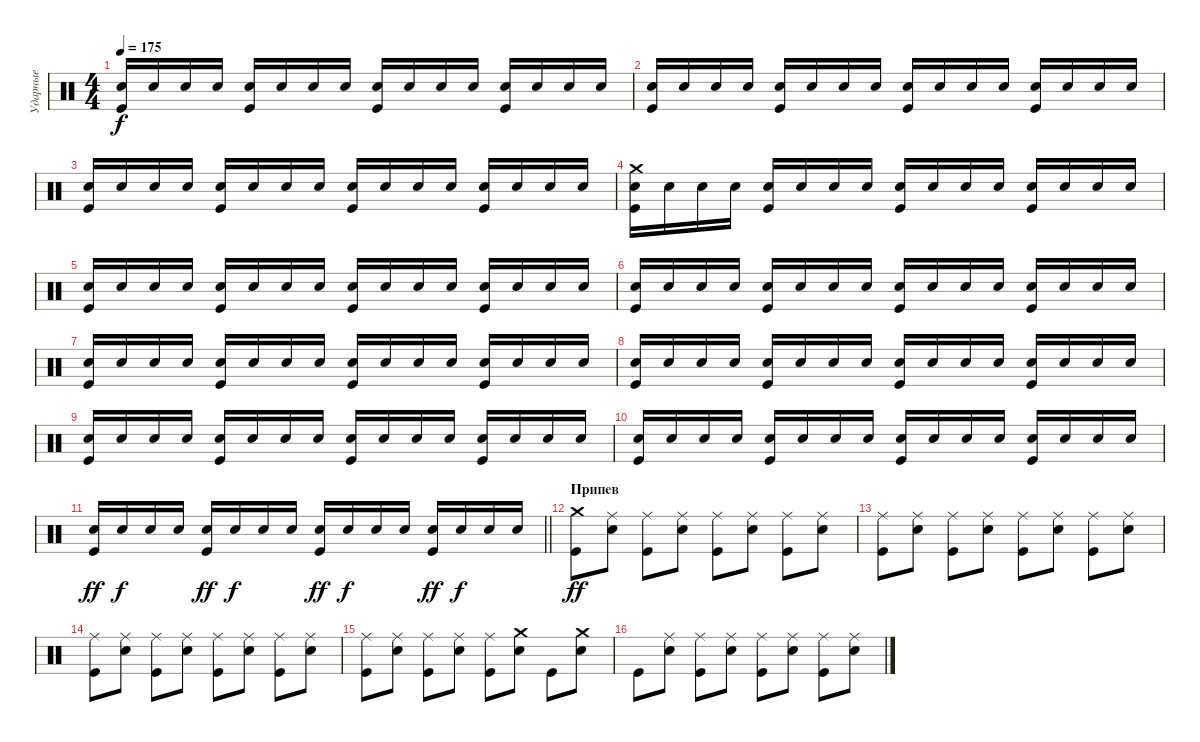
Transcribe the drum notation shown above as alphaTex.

\track ("Ударные" "Ударные") {instrument percussion}
\staff {score}
\articulation defaults
\ts (4 4)
\tempo 175
\clef neutral
\ks c
("Electric Snare (hit)" "Kick (hit)").16{dy f} "Electric Snare (hit)".16 "Electric Snare (hit)".16 "Electric Snare (hit)".16 ("Electric Snare (hit)" "Kick (hit)").16 "Electric Snare (hit)".16 "Electric Snare (hit)".16 "Electric Snare (hit)".16 ("Electric Snare (hit)" "Kick (hit)").16 "Electric Snare (hit)".16 "Electric Snare (hit)".16 "Electric Snare (hit)".16 ("Electric Snare (hit)" "Kick (hit)").16 "Electric Snare (hit)".16 "Electric Snare (hit)".16 "Electric Snare (hit)".16 |
("Electric Snare (hit)" "Kick (hit)").16 "Electric Snare (hit)".16 "Electric Snare (hit)".16 "Electric Snare (hit)".16 ("Electric Snare (hit)" "Kick (hit)").16 "Electric Snare (hit)".16 "Electric Snare (hit)".16 "Electric Snare (hit)".16 ("Electric Snare (hit)" "Kick (hit)").16 "Electric Snare (hit)".16 "Electric Snare (hit)".16 "Electric Snare (hit)".16 ("Electric Snare (hit)" "Kick (hit)").16 "Electric Snare (hit)".16 "Electric Snare (hit)".16 "Electric Snare (hit)".16 |
("Electric Snare (hit)" "Kick (hit)").16 "Electric Snare (hit)".16 "Electric Snare (hit)".16 "Electric Snare (hit)".16 ("Electric Snare (hit)" "Kick (hit)").16 "Electric Snare (hit)".16 "Electric Snare (hit)".16 "Electric Snare (hit)".16 ("Electric Snare (hit)" "Kick (hit)").16 "Electric Snare (hit)".16 "Electric Snare (hit)".16 "Electric Snare (hit)".16 ("Electric Snare (hit)" "Kick (hit)").16 "Electric Snare (hit)".16 "Electric Snare (hit)".16 "Electric Snare (hit)".16 |
("Crash medium (hit)" "Electric Snare (hit)" "Kick (hit)").16 "Electric Snare (hit)".16 "Electric Snare (hit)".16 "Electric Snare (hit)".16 ("Electric Snare (hit)" "Kick (hit)").16 "Electric Snare (hit)".16 "Electric Snare (hit)".16 "Electric Snare (hit)".16 ("Electric Snare (hit)" "Kick (hit)").16 "Electric Snare (hit)".16 "Electric Snare (hit)".16 "Electric Snare (hit)".16 ("Electric Snare (hit)" "Kick (hit)").16 "Electric Snare (hit)".16 "Electric Snare (hit)".16 "Electric Snare (hit)".16 |
("Electric Snare (hit)" "Kick (hit)").16 "Electric Snare (hit)".16 "Electric Snare (hit)".16 "Electric Snare (hit)".16 ("Electric Snare (hit)" "Kick (hit)").16 "Electric Snare (hit)".16 "Electric Snare (hit)".16 "Electric Snare (hit)".16 ("Electric Snare (hit)" "Kick (hit)").16 "Electric Snare (hit)".16 "Electric Snare (hit)".16 "Electric Snare (hit)".16 ("Electric Snare (hit)" "Kick (hit)").16 "Electric Snare (hit)".16 "Electric Snare (hit)".16 "Electric Snare (hit)".16 |
("Electric Snare (hit)" "Kick (hit)").16 "Electric Snare (hit)".16 "Electric Snare (hit)".16 "Electric Snare (hit)".16 ("Electric Snare (hit)" "Kick (hit)").16 "Electric Snare (hit)".16 "Electric Snare (hit)".16 "Electric Snare (hit)".16 ("Electric Snare (hit)" "Kick (hit)").16 "Electric Snare (hit)".16 "Electric Snare (hit)".16 "Electric Snare (hit)".16 ("Electric Snare (hit)" "Kick (hit)").16 "Electric Snare (hit)".16 "Electric Snare (hit)".16 "Electric Snare (hit)".16 |
("Electric Snare (hit)" "Kick (hit)").16 "Electric Snare (hit)".16 "Electric Snare (hit)".16 "Electric Snare (hit)".16 ("Electric Snare (hit)" "Kick (hit)").16 "Electric Snare (hit)".16 "Electric Snare (hit)".16 "Electric Snare (hit)".16 ("Electric Snare (hit)" "Kick (hit)").16 "Electric Snare (hit)".16 "Electric Snare (hit)".16 "Electric Snare (hit)".16 ("Electric Snare (hit)" "Kick (hit)").16 "Electric Snare (hit)".16 "Electric Snare (hit)".16 "Electric Snare (hit)".16 |
("Electric Snare (hit)" "Kick (hit)").16 "Electric Snare (hit)".16 "Electric Snare (hit)".16 "Electric Snare (hit)".16 ("Electric Snare (hit)" "Kick (hit)").16 "Electric Snare (hit)".16 "Electric Snare (hit)".16 "Electric Snare (hit)".16 ("Electric Snare (hit)" "Kick (hit)").16 "Electric Snare (hit)".16 "Electric Snare (hit)".16 "Electric Snare (hit)".16 ("Electric Snare (hit)" "Kick (hit)").16 "Electric Snare (hit)".16 "Electric Snare (hit)".16 "Electric Snare (hit)".16 |
("Electric Snare (hit)" "Kick (hit)").16 "Electric Snare (hit)".16 "Electric Snare (hit)".16 "Electric Snare (hit)".16 ("Electric Snare (hit)" "Kick (hit)").16 "Electric Snare (hit)".16 "Electric Snare (hit)".16 "Electric Snare (hit)".16 ("Electric Snare (hit)" "Kick (hit)").16 "Electric Snare (hit)".16 "Electric Snare (hit)".16 "Electric Snare (hit)".16 ("Electric Snare (hit)" "Kick (hit)").16 "Electric Snare (hit)".16 "Electric Snare (hit)".16 "Electric Snare (hit)".16 |
("Electric Snare (hit)" "Kick (hit)").16 "Electric Snare (hit)".16 "Electric Snare (hit)".16 "Electric Snare (hit)".16 ("Electric Snare (hit)" "Kick (hit)").16 "Electric Snare (hit)".16 "Electric Snare (hit)".16 "Electric Snare (hit)".16 ("Electric Snare (hit)" "Kick (hit)").16 "Electric Snare (hit)".16 "Electric Snare (hit)".16 "Electric Snare (hit)".16 ("Electric Snare (hit)" "Kick (hit)").16 "Electric Snare (hit)".16 "Electric Snare (hit)".16 "Electric Snare (hit)".16 |
\barLineRight lightlight
("Electric Snare (hit)" "Kick (hit)").16{dy ff} "Electric Snare (hit)".16{dy f} "Electric Snare (hit)".16 "Electric Snare (hit)".16 ("Electric Snare (hit)" "Kick (hit)").16{dy ff} "Electric Snare (hit)".16{dy f} "Electric Snare (hit)".16 "Electric Snare (hit)".16 ("Electric Snare (hit)" "Kick (hit)").16{dy ff} "Electric Snare (hit)".16{dy f} "Electric Snare (hit)".16 "Electric Snare (hit)".16 ("Electric Snare (hit)" "Kick (hit)").16{dy ff} "Electric Snare (hit)".16{dy f} "Electric Snare (hit)".16 "Electric Snare (hit)".16 |
\section ("" "Припев")
("Crash medium (hit)" "Kick (hit)").8{dy ff} ("Ride (middle)" "Electric Snare (hit)").8 ("Ride (middle)" "Kick (hit)").8 ("Ride (middle)" "Electric Snare (hit)").8 ("Ride (middle)" "Kick (hit)").8 ("Ride (middle)" "Electric Snare (hit)").8 ("Ride (middle)" "Kick (hit)").8 ("Ride (middle)" "Electric Snare (hit)").8 |
("Ride (middle)" "Kick (hit)").8 ("Ride (middle)" "Electric Snare (hit)").8 ("Ride (middle)" "Kick (hit)").8 ("Ride (middle)" "Electric Snare (hit)").8 ("Ride (middle)" "Kick (hit)").8 ("Ride (middle)" "Electric Snare (hit)").8 ("Ride (middle)" "Kick (hit)").8 ("Ride (middle)" "Electric Snare (hit)").8 |
("Ride (middle)" "Kick (hit)").8 ("Ride (middle)" "Electric Snare (hit)").8 ("Ride (middle)" "Kick (hit)").8 ("Ride (middle)" "Electric Snare (hit)").8 ("Ride (middle)" "Kick (hit)").8 ("Ride (middle)" "Electric Snare (hit)").8 ("Ride (middle)" "Kick (hit)").8 ("Ride (middle)" "Electric Snare (hit)").8 |
("Ride (middle)" "Kick (hit)").8 ("Ride (middle)" "Electric Snare (hit)").8 ("Ride (middle)" "Kick (hit)").8 ("Ride (middle)" "Electric Snare (hit)").8 ("Ride (middle)" "Kick (hit)").8 ("Crash medium (hit)" "Electric Snare (hit)").8 "Kick (hit)".8 ("Crash medium (hit)" "Electric Snare (hit)").8 |
"Kick (hit)".8 ("Ride (middle)" "Electric Snare (hit)").8 ("Ride (middle)" "Kick (hit)").8 ("Ride (middle)" "Electric Snare (hit)").8 ("Ride (middle)" "Kick (hit)").8 ("Ride (middle)" "Electric Snare (hit)").8 ("Ride (middle)" "Kick (hit)").8 ("Ride (middle)" "Electric Snare (hit)").8
